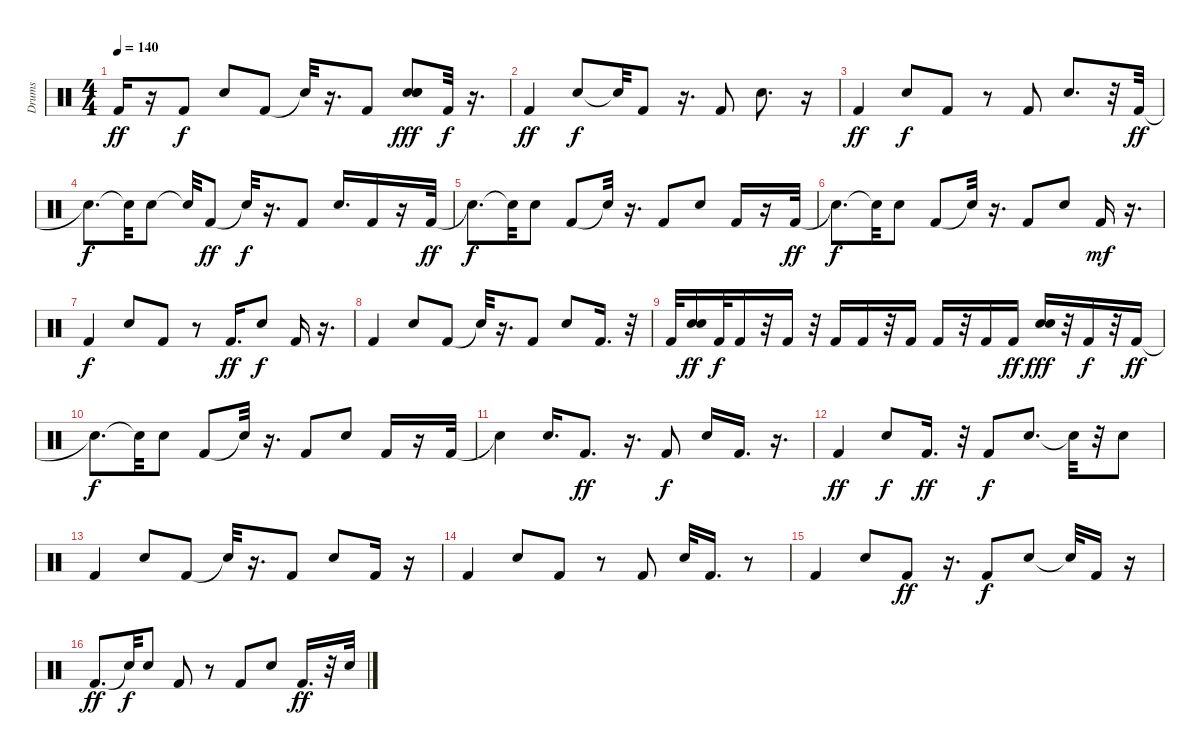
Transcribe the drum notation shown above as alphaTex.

\track ("Drums" "Drums") {instrument percussion}
\staff {score}
\articulation defaults
\ts (4 4)
\tempo 140
\clef neutral
\ks c "Kick (hit) 2".16{dy ff}
r.16 "Kick (hit) 2".8{dy f} "Snare (hit) 2".8 "Kick (hit) 2".8 "Snare (hit)"{t}.32 r.16{d} "Kick (hit) 2".8 ("Snare (hit) 2" "Electric Snare (hit)" "Snare (hit) 2").8{dy fff} "Kick (hit) 2".32{dy f} r.16{d} |
"Kick (hit) 2".4{dy ff} "Snare (hit) 2".8{dy f} "Snare (hit)"{t}.32 "Kick (hit) 2".8 r.16{d} "Kick (hit) 2".8 "Snare (hit) 2".8{d} r.16 |
"Kick (hit) 2".4{dy ff} "Snare (hit) 2".8{dy f} "Kick (hit) 2".8 r.8 "Kick (hit) 2".8 "Snare (hit) 2".8{d} r.32 "Kick (hit) 2".32{dy ff} |
"Snare (hit)"{t}.8{d dy f} "Snare (hit)"{t}.32 "Snare (hit) 2".8 "Snare (hit)"{t}.32 "Kick (hit) 2".8{dy ff} "Snare (hit)"{t}.32{dy f} r.16{d} "Kick (hit) 2".8 "Snare (hit) 2".16{d} "Kick (hit) 2".16 r.16 "Kick (hit) 2".32{dy ff} |
"Snare (hit)"{t}.8{d dy f} "Snare (hit)"{t}.32 "Snare (hit) 2".8 "Kick (hit) 2".8 "Snare (hit)"{t}.32 r.16{d} "Kick (hit) 2".8 "Snare (hit) 2".8 "Kick (hit) 2".16 r.16 "Kick (hit) 2".32{dy ff} |
"Snare (hit)"{t}.8{d dy f} "Snare (hit)"{t}.32 "Snare (hit) 2".8 "Kick (hit) 2".8 "Snare (hit)"{t}.32 r.16{d} "Kick (hit) 2".8 "Snare (hit) 2".8 "Kick (hit) 2".16{dy mf} r.16{d} |
"Kick (hit) 2".4{dy f} "Snare (hit) 2".8 "Kick (hit) 2".8 r.8 "Kick (hit) 2".16{d dy ff} "Snare (hit) 2".8{dy f} "Kick (hit) 2".16 r.16{d} |
"Kick (hit) 2".4 "Snare (hit) 2".8 "Kick (hit) 2".8 "Snare (hit)"{t}.32 r.16{d} "Kick (hit) 2".8 "Snare (hit) 2".8 "Kick (hit) 2".16{d} r.32 |
"Kick (hit) 2".32 ("Electric Snare (hit)" "Snare (hit) 2").16{dy ff} "Kick (hit) 2".32{dy f} "Kick (hit) 2".16 r.32 "Kick (hit) 2".16 r.32 "Kick (hit) 2".16 "Kick (hit) 2".16 r.32 "Kick (hit) 2".16 "Kick (hit) 2".16 r.32 "Kick (hit) 2".16 "Kick (hit) 2".16{dy ff} ("Electric Snare (hit)" "Snare (hit) 2").16{dy fff} r.32 "Kick (hit) 2".16{dy f} r.32 "Kick (hit) 2".16{dy ff} |
"Snare (hit)"{t}.8{d dy f} "Snare (hit)"{t}.32 "Snare (hit) 2".8 "Kick (hit) 2".8 "Snare (hit)"{t}.32 r.16{d} "Kick (hit) 2".8 "Snare (hit) 2".8 "Kick (hit) 2".16 r.16 "Kick (hit) 2".32 |
"Snare (hit)"{t}.4 "Snare (hit) 2".16{d} "Kick (hit) 2".8{d dy ff} r.16{d} "Kick (hit) 2".8{dy f} "Snare (hit) 2".16 "Kick (hit) 2".16{d} r.16{d} |
"Kick (hit) 2".4{dy ff} "Snare (hit) 2".8{dy f} "Kick (hit) 2".16{d dy ff} r.32 "Kick (hit) 2".8{dy f} "Snare (hit) 2".8{d} "Snare (hit)"{t}.32 r.32 "Snare (hit) 2".8 |
"Kick (hit) 2".4 "Snare (hit) 2".8 "Kick (hit) 2".8 "Snare (hit)"{t}.32 r.16{d} "Kick (hit) 2".8 "Snare (hit) 2".8 "Kick (hit) 2".16 r.16 |
"Kick (hit) 2".4 "Snare (hit) 2".8 "Kick (hit) 2".8 r.8 "Kick (hit) 2".8 "Snare (hit) 2".32 "Kick (hit) 2".16{d} r.8 |
"Kick (hit) 2".4 "Snare (hit) 2".8 "Kick (hit) 2".8{dy ff} r.16{d} "Kick (hit) 2".8{dy f} "Snare (hit) 2".8 "Snare (hit)"{t}.32 "Kick (hit) 2".16 r.16 |
"Kick (hit) 2".8{d dy ff} "Snare (hit)"{t}.32{dy f} "Snare (hit) 2".8 "Kick (hit) 2".8 r.8 "Kick (hit) 2".8 "Snare (hit) 2".8 "Kick (hit) 2".16{d dy ff} r.32 "Snare (hit) 2".32
